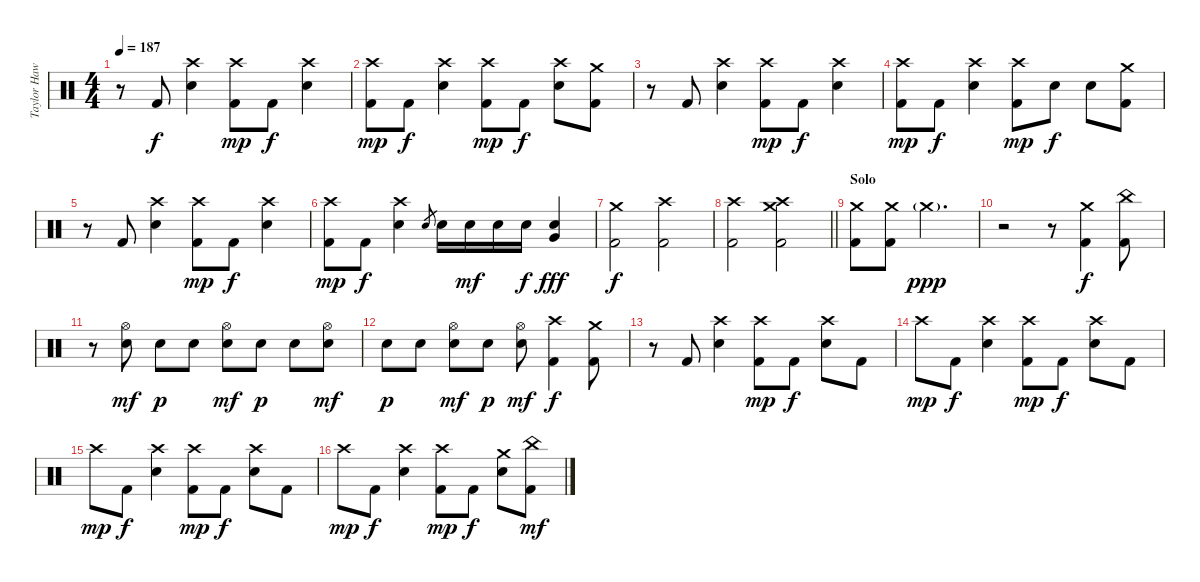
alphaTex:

\track ("Taylor Hawkins" "Taylor Haw") {instrument percussion}
\staff {score}
\articulation defaults
\ts (4 4)
\tempo 187
\clef neutral
\ks c
r.8{dy f} "Kick (hit) 2".8 ("Crash high (hit)" "Snare (hit) 2").4 ("Crash high (hit)" "Kick (hit) 2").8{dy mp} "Kick (hit) 2".8{dy f} ("Crash high (hit)" "Snare (hit) 2").4 |
("Crash high (hit)" "Kick (hit) 2").8{dy mp} "Kick (hit) 2".8{dy f} ("Crash high (hit)" "Snare (hit) 2").4 ("Crash high (hit)" "Kick (hit) 2").8{dy mp} "Kick (hit) 2".8{dy f} ("Crash high (hit)" "Snare (hit) 2").8 ("Crash medium (hit)" "Kick (hit) 2").8 |
r.8 "Kick (hit) 2".8 ("Crash high (hit)" "Snare (hit) 2").4 ("Crash high (hit)" "Kick (hit) 2").8{dy mp} "Kick (hit) 2".8{dy f} ("Crash high (hit)" "Snare (hit) 2").4 |
("Crash high (hit)" "Kick (hit) 2").8{dy mp} "Kick (hit) 2".8{dy f} ("Crash high (hit)" "Snare (hit) 2").4 ("Crash high (hit)" "Kick (hit) 2").8{dy mp} "Snare (hit) 2".8{dy f} "Snare (hit) 2".8 ("Crash medium (hit)" "Kick (hit) 2").8 |
r.8 "Kick (hit) 2".8 ("Crash high (hit)" "Snare (hit) 2").4 ("Crash high (hit)" "Kick (hit) 2").8{dy mp} "Kick (hit) 2".8{dy f} ("Crash high (hit)" "Snare (hit) 2").4 |
("Crash high (hit)" "Kick (hit) 2").8{dy mp} "Kick (hit) 2".8{dy f} ("Crash high (hit)" "Snare (hit) 2").4 "Snare (hit) 2".8{gr} "Snare (hit) 2".16 "Snare (hit) 2".16{dy mf} "Snare (hit) 2".16 "Snare (hit) 2".16{dy f} ("Snare (hit) 2" "Very Low Tom (hit)").4{dy fff} |
("Crash medium (hit)" "Kick (hit) 2").2{dy f} ("Crash high (hit)" "Kick (hit) 2").2 |
\barLineRight lightlight
("Crash high (hit)" "Kick (hit) 2").2 ("Crash high (hit)" "Crash medium (hit)" "Kick (hit) 2").2 |
\section ("" "Solo")
("Crash medium (hit)" "Kick (hit) 2").8 ("Crash medium (hit)" "Kick (hit) 2").8 "Crash medium (hit)"{g}.2{d dy ppp} |
r.2 r.8 ("Crash medium (hit)" "Kick (hit) 2").4{dy f} ("China (hit)" "Kick (hit) 2").8 |
r.8 ("Hi-Hat (open)" "Snare (hit) 2").8{dy mf} "Snare (hit) 2".8{dy p} "Snare (hit) 2".8 ("Hi-Hat (open)" "Snare (hit) 2").8{dy mf} "Snare (hit) 2".8{dy p} "Snare (hit) 2".8 ("Hi-Hat (open)" "Snare (hit) 2").8{dy mf} |
"Snare (hit) 2".8{dy p} "Snare (hit) 2".8 ("Hi-Hat (open)" "Snare (hit) 2").8{dy mf} "Snare (hit) 2".8{dy p} ("Hi-Hat (open)" "Snare (hit) 2").8{dy mf} ("Crash high (hit)" "Kick (hit) 2").4{dy f} ("Crash medium (hit)" "Kick (hit) 2").8 |
r.8 "Kick (hit) 2".8 ("Crash high (hit)" "Snare (hit) 2").4 ("Crash high (hit)" "Kick (hit) 2").8{dy mp} "Kick (hit) 2".8{dy f} ("Crash high (hit)" "Snare (hit) 2").8 "Kick (hit) 2".8 |
"Crash high (hit)".8{dy mp} "Kick (hit) 2".8{dy f} ("Crash high (hit)" "Snare (hit) 2").4 ("Crash high (hit)" "Kick (hit) 2").8{dy mp} "Kick (hit) 2".8{dy f} ("Crash high (hit)" "Snare (hit) 2").8 "Kick (hit) 2".8 |
"Crash high (hit)".8{dy mp} "Kick (hit) 2".8{dy f} ("Crash high (hit)" "Snare (hit) 2").4 ("Crash high (hit)" "Kick (hit) 2").8{dy mp} "Kick (hit) 2".8{dy f} ("Crash high (hit)" "Snare (hit) 2").8 "Kick (hit) 2".8 |
"Crash high (hit)".8{dy mp} "Kick (hit) 2".8{dy f} ("Crash high (hit)" "Snare (hit) 2").4 ("Crash high (hit)" "Kick (hit) 2").8{dy mp} "Kick (hit) 2".8{dy f} ("Crash medium (hit)" "Snare (hit) 2").8 ("China (hit)" "Kick (hit) 2").8{dy mf}
